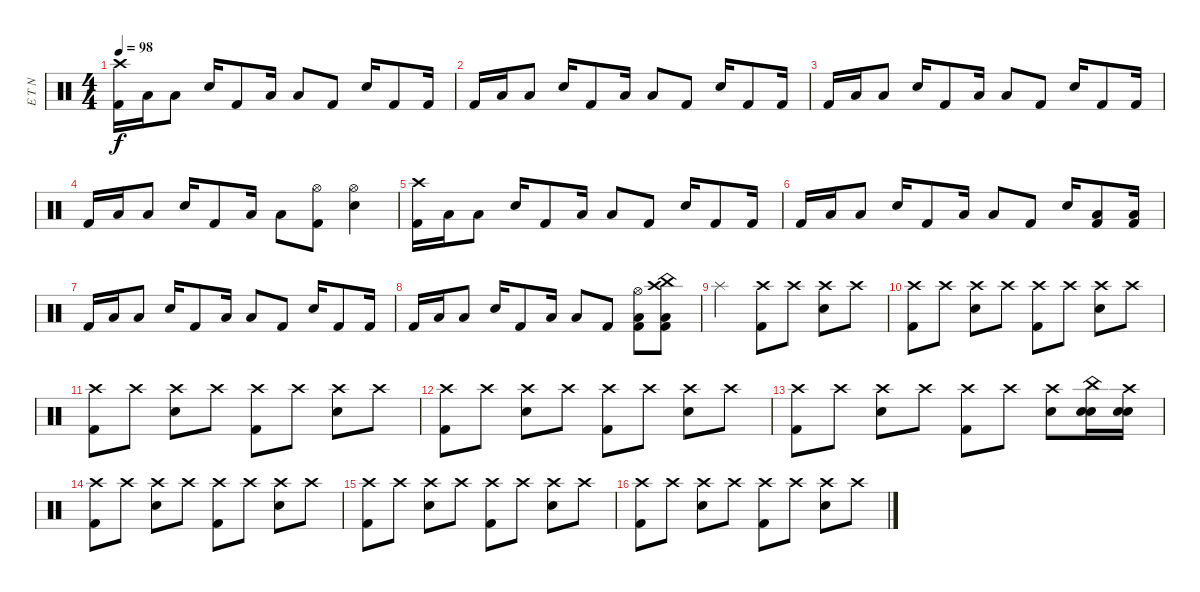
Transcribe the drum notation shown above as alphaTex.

\track ("E T N" "E T N") {instrument percussion}
\staff {score}
\articulation defaults
\ts (4 4)
\tempo 98
\clef neutral
\ks c
("Crash high (hit)" "Kick (hit) 2").16{dy f} "Low Tom (hit)".16 "Low Floor Tom (hit)".8 "Electric Snare (hit)".16 "Kick (hit) 2".8 "Low Tom (hit)".16 "Low Floor Tom (hit)".8 "Kick (hit) 2".8 "Electric Snare (hit)".16 "Kick (hit) 2".8 "Kick (hit) 2".16 |
"Kick (hit) 2".16 "Low Tom (hit)".16 "Low Floor Tom (hit)".8 "Electric Snare (hit)".16 "Kick (hit) 2".8 "Low Tom (hit)".16 "Low Floor Tom (hit)".8 "Kick (hit) 2".8 "Electric Snare (hit)".16 "Kick (hit) 2".8 "Kick (hit) 2".16 |
"Kick (hit) 2".16 "Low Tom (hit)".16 "Low Floor Tom (hit)".8 "Electric Snare (hit)".16 "Kick (hit) 2".8 "Low Tom (hit)".16 "Low Floor Tom (hit)".8 "Kick (hit) 2".8 "Electric Snare (hit)".16 "Kick (hit) 2".8 "Kick (hit) 2".16 |
"Kick (hit) 2".16 "Low Tom (hit)".16 "Low Floor Tom (hit)".8 "Electric Snare (hit)".16 "Kick (hit) 2".8 "Low Tom (hit)".16 "Low Floor Tom (hit)".8 ("Hi-Hat (open)" "Kick (hit) 2").8 ("Hi-Hat (open)" "Electric Snare (hit)").4 |
("Crash high (hit)" "Kick (hit) 2").16 "Low Tom (hit)".16 "Low Floor Tom (hit)".8 "Electric Snare (hit)".16 "Kick (hit) 2".8 "Low Tom (hit)".16 "Low Floor Tom (hit)".8 "Kick (hit) 2".8 "Electric Snare (hit)".16 "Kick (hit) 2".8 "Kick (hit) 2".16 |
"Kick (hit) 2".16 "Low Tom (hit)".16 "Low Floor Tom (hit)".8 "Electric Snare (hit)".16 "Kick (hit) 2".8 "Low Tom (hit)".16 "Low Floor Tom (hit)".8 "Kick (hit) 2".8 "Electric Snare (hit)".16 ("Low Floor Tom (hit)" "Kick (hit) 2").8 ("Low Floor Tom (hit)" "Kick (hit) 2").16 |
"Kick (hit) 2".16 "Low Tom (hit)".16 "Low Floor Tom (hit)".8 "Electric Snare (hit)".16 "Kick (hit) 2".8 "Low Tom (hit)".16 "Low Floor Tom (hit)".8 "Kick (hit) 2".8 "Electric Snare (hit)".16 "Kick (hit) 2".8 "Kick (hit) 2".16 |
"Kick (hit) 2".16 "Low Tom (hit)".16 "Low Floor Tom (hit)".8 "Electric Snare (hit)".16 "Kick (hit) 2".8 "Low Tom (hit)".16 "Low Floor Tom (hit)".8 "Kick (hit) 2".8 ("Hi-Hat (open)" "Low Floor Tom (hit)" "Kick (hit) 2").8 ("Crash high (hit)" "China (hit)" "Low Floor Tom (hit)" "Kick (hit) 2").8 |
"Splash (hit)".2 ("Crash high (hit)" "Kick (hit) 2").8 "Crash high (hit)".8 ("Crash high (hit)" "Electric Snare (hit)").8 "Crash high (hit)".8 |
("Crash high (hit)" "Kick (hit) 2").8 "Crash high (hit)".8 ("Crash high (hit)" "Electric Snare (hit)").8 "Crash high (hit)".8 ("Crash high (hit)" "Kick (hit) 2").8 "Crash high (hit)".8 ("Crash high (hit)" "Electric Snare (hit)").8 "Crash high (hit)".8 |
("Crash high (hit)" "Kick (hit) 2").8 "Crash high (hit)".8 ("Crash high (hit)" "Electric Snare (hit)").8 "Crash high (hit)".8 ("Crash high (hit)" "Kick (hit) 2").8 "Crash high (hit)".8 ("Crash high (hit)" "Electric Snare (hit)").8 "Crash high (hit)".8 |
("Crash high (hit)" "Kick (hit) 2").8 "Crash high (hit)".8 ("Crash high (hit)" "Electric Snare (hit)").8 "Crash high (hit)".8 ("Crash high (hit)" "Kick (hit) 2").8 "Crash high (hit)".8 ("Crash high (hit)" "Electric Snare (hit)").8 "Crash high (hit)".8 |
("Crash high (hit)" "Kick (hit) 2").8 "Crash high (hit)".8 ("Crash high (hit)" "Electric Snare (hit)").8 "Crash high (hit)".8 ("Crash high (hit)" "Kick (hit) 2").8 "Crash high (hit)".8 ("Crash high (hit)" "Electric Snare (hit)").8 ("China (hit)" "Electric Snare (hit)" "Electric Snare (hit)").16 ("Crash high (hit)" "Electric Snare (hit)" "Electric Snare (hit)").16 |
("Crash high (hit)" "Kick (hit) 2").8 "Crash high (hit)".8 ("Crash high (hit)" "Electric Snare (hit)").8 "Crash high (hit)".8 ("Crash high (hit)" "Kick (hit) 2").8 "Crash high (hit)".8 ("Crash high (hit)" "Electric Snare (hit)").8 "Crash high (hit)".8 |
("Crash high (hit)" "Kick (hit) 2").8 "Crash high (hit)".8 ("Crash high (hit)" "Electric Snare (hit)").8 "Crash high (hit)".8 ("Crash high (hit)" "Kick (hit) 2").8 "Crash high (hit)".8 ("Crash high (hit)" "Electric Snare (hit)").8 "Crash high (hit)".8 |
("Crash high (hit)" "Kick (hit) 2").8 "Crash high (hit)".8 ("Crash high (hit)" "Electric Snare (hit)").8 "Crash high (hit)".8 ("Crash high (hit)" "Kick (hit) 2").8 "Crash high (hit)".8 ("Crash high (hit)" "Electric Snare (hit)").8 "Crash high (hit)".8
